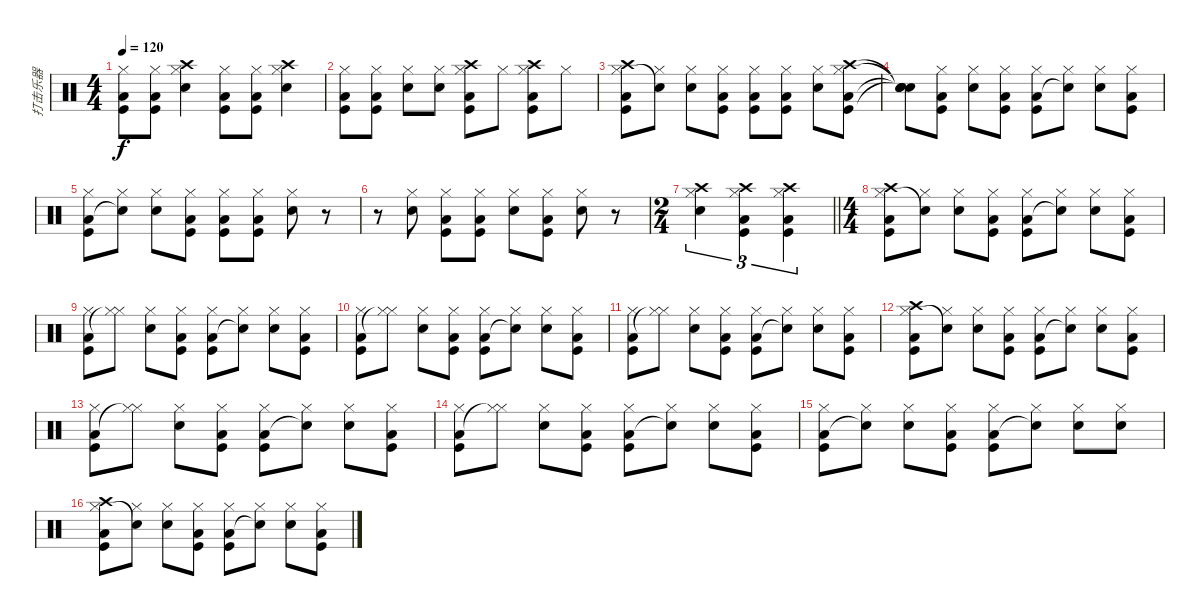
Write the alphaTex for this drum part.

\track ("打击乐器" "打击乐器") {instrument percussion}
\staff {score}
\articulation defaults
\ts (4 4)
\tempo 120
\clef neutral
\ks c
("Hi-Hat (closed)" "Low Floor Tom (hit)" "Kick (hit)").8{dy f} ("Hi-Hat (closed)" "Low Floor Tom (hit)" "Kick (hit)").8 ("Crash high (hit)" "Hi-Hat (closed)" "Electric Snare (hit)").4 ("Hi-Hat (closed)" "Low Floor Tom (hit)" "Kick (hit)").8 ("Hi-Hat (closed)" "Low Floor Tom (hit)" "Kick (hit)").8 ("Crash high (hit)" "Hi-Hat (closed)" "Electric Snare (hit)").4 |
("Hi-Hat (closed)" "Low Floor Tom (hit)" "Kick (hit)").8 ("Hi-Hat (closed)" "Low Floor Tom (hit)" "Kick (hit)").8 ("Hi-Hat (closed)" "Electric Snare (hit)").8 ("Hi-Hat (closed)" "Electric Snare (hit)").8 ("Crash high (hit)" "Hi-Hat (closed)" "Low Floor Tom (hit)" "Kick (hit)").8 "Hi-Hat (closed)".8 ("Crash high (hit)" "Hi-Hat (closed)" "Low Floor Tom (hit)" "Kick (hit)").8 "Hi-Hat (closed)".8 |
("Crash high (hit)" "Hi-Hat (closed)" "Low Floor Tom (hit)" "Kick (hit)").8 ("Hi-Hat (closed)" "Snare (hit)"{t}).8 ("Hi-Hat (closed)" "Electric Snare (hit)").8 ("Hi-Hat (closed)" "Low Floor Tom (hit)" "Kick (hit)").8 ("Hi-Hat (closed)" "Low Floor Tom (hit)" "Kick (hit)").8 ("Hi-Hat (closed)" "Low Floor Tom (hit)" "Kick (hit)").8 ("Hi-Hat (closed)" "Electric Snare (hit)").8 ("Crash high (hit)" "Hi-Hat (closed)" "Low Floor Tom (hit)" "Kick (hit)").8 |
("Snare (hit)"{t} "Snare (hit)"{t} "Snare (hit)"{t} "Snare (hit)"{t}).8 ("Hi-Hat (closed)" "Low Floor Tom (hit)" "Kick (hit)").8 ("Hi-Hat (closed)" "Electric Snare (hit)").8 ("Hi-Hat (closed)" "Low Floor Tom (hit)" "Kick (hit)").8 ("Hi-Hat (closed)" "Low Floor Tom (hit)" "Kick (hit)").8 ("Hi-Hat (closed)" "Snare (hit)"{t}).8 ("Hi-Hat (closed)" "Electric Snare (hit)").8 ("Hi-Hat (closed)" "Low Floor Tom (hit)" "Kick (hit)").8 |
("Hi-Hat (closed)" "Low Floor Tom (hit)" "Kick (hit)").8 ("Hi-Hat (closed)" "Snare (hit)"{t}).8 ("Hi-Hat (closed)" "Electric Snare (hit)").8 ("Hi-Hat (closed)" "Low Floor Tom (hit)" "Kick (hit)").8 ("Hi-Hat (closed)" "Low Floor Tom (hit)" "Kick (hit)").8 ("Hi-Hat (closed)" "Low Floor Tom (hit)" "Kick (hit)").8 ("Hi-Hat (closed)" "Electric Snare (hit)").8 r.8 |
r.8 ("Hi-Hat (closed)" "Electric Snare (hit)").8 ("Hi-Hat (closed)" "Low Floor Tom (hit)" "Kick (hit)").8 ("Hi-Hat (closed)" "Low Floor Tom (hit)" "Kick (hit)").8 ("Hi-Hat (closed)" "Electric Snare (hit)").8 ("Hi-Hat (closed)" "Low Floor Tom (hit)" "Kick (hit)").8 ("Hi-Hat (closed)" "Electric Snare (hit)").8 r.8 |
\ts (2 4)
\barLineRight lightlight
("Crash high (hit)" "Hi-Hat (closed)" "Electric Snare (hit)").4{tu (3 2)} ("Crash high (hit)" "Hi-Hat (closed)" "Low Floor Tom (hit)" "Kick (hit)").4{tu (3 2)} ("Crash high (hit)" "Hi-Hat (closed)" "Low Tom (hit)" "Kick (hit)").4{tu (3 2)} |
\ts (4 4)
("Crash high (hit)" "Hi-Hat (closed)" "Low Floor Tom (hit)" "Kick (hit)").8 ("Hi-Hat (closed)" "Snare (hit)"{t}).8 ("Hi-Hat (closed)" "Electric Snare (hit)").8 ("Hi-Hat (closed)" "Low Floor Tom (hit)" "Kick (hit)").8 ("Hi-Hat (closed)" "Low Floor Tom (hit)" "Kick (hit)").8 ("Hi-Hat (closed)" "Snare (hit)"{t}).8 ("Hi-Hat (closed)" "Electric Snare (hit)").8 ("Hi-Hat (closed)" "Low Floor Tom (hit)" "Kick (hit)").8 |
("Hi-Hat (closed)" "Low Floor Tom (hit)" "Kick (hit)").8 ("Hi-Hat (closed)" "Hi-Hat (closed)"{t}).8 ("Hi-Hat (closed)" "Electric Snare (hit)").8 ("Hi-Hat (closed)" "Low Floor Tom (hit)" "Kick (hit)").8 ("Hi-Hat (closed)" "Low Floor Tom (hit)" "Kick (hit)").8 ("Hi-Hat (closed)" "Snare (hit)"{t}).8 ("Hi-Hat (closed)" "Electric Snare (hit)").8 ("Hi-Hat (closed)" "Low Floor Tom (hit)" "Kick (hit)").8 |
("Hi-Hat (closed)" "Low Floor Tom (hit)" "Kick (hit)").8 ("Hi-Hat (closed)" "Hi-Hat (closed)"{t}).8 ("Hi-Hat (closed)" "Electric Snare (hit)").8 ("Hi-Hat (closed)" "Low Floor Tom (hit)" "Kick (hit)").8 ("Hi-Hat (closed)" "Low Floor Tom (hit)" "Kick (hit)").8 ("Hi-Hat (closed)" "Snare (hit)"{t}).8 ("Hi-Hat (closed)" "Electric Snare (hit)").8 ("Hi-Hat (closed)" "Low Floor Tom (hit)" "Kick (hit)").8 |
("Hi-Hat (closed)" "Low Floor Tom (hit)" "Kick (hit)").8 ("Hi-Hat (closed)" "Hi-Hat (closed)"{t}).8 ("Hi-Hat (closed)" "Electric Snare (hit)").8 ("Hi-Hat (closed)" "Low Floor Tom (hit)" "Kick (hit)").8 ("Hi-Hat (closed)" "Low Floor Tom (hit)" "Kick (hit)").8 ("Hi-Hat (closed)" "Snare (hit)"{t}).8 ("Hi-Hat (closed)" "Electric Snare (hit)").8 ("Hi-Hat (closed)" "Low Floor Tom (hit)" "Kick (hit)").8 |
("Crash high (hit)" "Hi-Hat (closed)" "Low Floor Tom (hit)" "Kick (hit)").8 ("Hi-Hat (closed)" "Snare (hit)"{t}).8 ("Hi-Hat (closed)" "Electric Snare (hit)").8 ("Hi-Hat (closed)" "Low Floor Tom (hit)" "Kick (hit)").8 ("Hi-Hat (closed)" "Low Floor Tom (hit)" "Kick (hit)").8 ("Hi-Hat (closed)" "Snare (hit)"{t}).8 ("Hi-Hat (closed)" "Electric Snare (hit)").8 ("Hi-Hat (closed)" "Low Floor Tom (hit)" "Kick (hit)").8 |
("Hi-Hat (closed)" "Low Floor Tom (hit)" "Kick (hit)").8 ("Hi-Hat (closed)" "Hi-Hat (closed)"{t}).8 ("Hi-Hat (closed)" "Electric Snare (hit)").8 ("Hi-Hat (closed)" "Low Floor Tom (hit)" "Kick (hit)").8 ("Hi-Hat (closed)" "Low Floor Tom (hit)" "Kick (hit)").8 ("Hi-Hat (closed)" "Snare (hit)"{t}).8 ("Hi-Hat (closed)" "Electric Snare (hit)").8 ("Hi-Hat (closed)" "Low Floor Tom (hit)" "Kick (hit)").8 |
("Hi-Hat (closed)" "Low Floor Tom (hit)" "Kick (hit)").8 ("Hi-Hat (closed)" "Hi-Hat (closed)"{t}).8 ("Hi-Hat (closed)" "Electric Snare (hit)").8 ("Hi-Hat (closed)" "Low Floor Tom (hit)" "Kick (hit)").8 ("Hi-Hat (closed)" "Low Floor Tom (hit)" "Kick (hit)").8 ("Hi-Hat (closed)" "Snare (hit)"{t}).8 ("Hi-Hat (closed)" "Electric Snare (hit)").8 ("Hi-Hat (closed)" "Low Floor Tom (hit)" "Kick (hit)").8 |
("Hi-Hat (closed)" "Low Floor Tom (hit)" "Kick (hit)").8 ("Hi-Hat (closed)" "Snare (hit)"{t}).8 ("Hi-Hat (closed)" "Electric Snare (hit)").8 ("Hi-Hat (closed)" "Low Floor Tom (hit)" "Kick (hit)").8 ("Hi-Hat (closed)" "Low Floor Tom (hit)" "Kick (hit)").8 ("Hi-Hat (closed)" "Snare (hit)"{t}).8 ("Hi-Hat (closed)" "Electric Snare (hit)").8 ("Hi-Hat (closed)" "Electric Snare (hit)").8 |
("Crash high (hit)" "Hi-Hat (closed)" "Low Floor Tom (hit)" "Kick (hit)").8 ("Hi-Hat (closed)" "Snare (hit)"{t}).8 ("Hi-Hat (closed)" "Electric Snare (hit)").8 ("Hi-Hat (closed)" "Low Floor Tom (hit)" "Kick (hit)").8 ("Hi-Hat (closed)" "Low Floor Tom (hit)" "Kick (hit)").8 ("Hi-Hat (closed)" "Snare (hit)"{t}).8 ("Hi-Hat (closed)" "Electric Snare (hit)").8 ("Hi-Hat (closed)" "Low Floor Tom (hit)" "Kick (hit)").8
